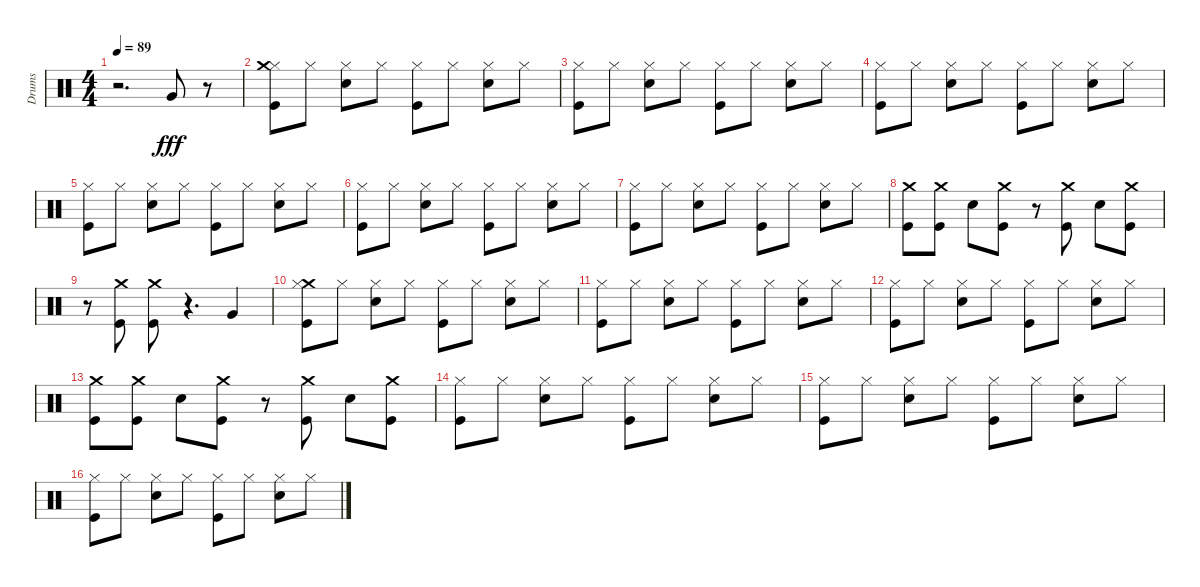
\track ("Drums" "Drums") {instrument percussion}
\staff {score}
\articulation defaults
\ts (4 4)
\tempo 89
\clef neutral
\ks c
r.2{d dy fff} "Very Low Tom (hit)".8 r.8 |
("Kick (hit)" "Hi-Hat (closed)" "Crash medium (hit)").8 "Hi-Hat (closed)".8 ("Snare (hit) 2" "Hi-Hat (closed)").8 "Hi-Hat (closed)".8 ("Kick (hit)" "Hi-Hat (closed)").8 "Hi-Hat (closed)".8 ("Snare (hit) 2" "Hi-Hat (closed)").8 "Hi-Hat (closed)".8 |
("Kick (hit)" "Hi-Hat (closed)").8 "Hi-Hat (closed)".8 ("Snare (hit) 2" "Hi-Hat (closed)").8 "Hi-Hat (closed)".8 ("Kick (hit)" "Hi-Hat (closed)").8 "Hi-Hat (closed)".8 ("Snare (hit) 2" "Hi-Hat (closed)").8 "Hi-Hat (closed)".8 |
("Kick (hit)" "Hi-Hat (closed)").8 "Hi-Hat (closed)".8 ("Snare (hit) 2" "Hi-Hat (closed)").8 "Hi-Hat (closed)".8 ("Kick (hit)" "Hi-Hat (closed)").8 "Hi-Hat (closed)".8 ("Snare (hit) 2" "Hi-Hat (closed)").8 "Hi-Hat (closed)".8 |
("Kick (hit)" "Hi-Hat (closed)").8 "Hi-Hat (closed)".8 ("Snare (hit) 2" "Hi-Hat (closed)").8 "Hi-Hat (closed)".8 ("Kick (hit)" "Hi-Hat (closed)").8 "Hi-Hat (closed)".8 ("Snare (hit) 2" "Hi-Hat (closed)").8 "Hi-Hat (closed)".8 |
("Kick (hit)" "Hi-Hat (closed)").8 "Hi-Hat (closed)".8 ("Snare (hit) 2" "Hi-Hat (closed)").8 "Hi-Hat (closed)".8 ("Kick (hit)" "Hi-Hat (closed)").8 "Hi-Hat (closed)".8 ("Snare (hit) 2" "Hi-Hat (closed)").8 "Hi-Hat (closed)".8 |
("Kick (hit)" "Hi-Hat (closed)").8 "Hi-Hat (closed)".8 ("Snare (hit) 2" "Hi-Hat (closed)").8 "Hi-Hat (closed)".8 ("Kick (hit)" "Hi-Hat (closed)").8 "Hi-Hat (closed)".8 ("Snare (hit) 2" "Hi-Hat (closed)").8 "Hi-Hat (closed)".8 |
("Crash medium (hit)" "Kick (hit)").8 ("Crash medium (hit)" "Kick (hit)").8 "Snare (hit) 2".8 ("Crash medium (hit)" "Kick (hit)").8 r.8 ("Crash medium (hit)" "Kick (hit)").8 "Snare (hit) 2".8 ("Crash medium (hit)" "Kick (hit)").8 |
r.8 ("Crash medium (hit)" "Kick (hit)").8 ("Crash medium (hit)" "Kick (hit)").8 r.4{d} "Very Low Tom (hit)".4 |
("Crash medium (hit)" "Hi-Hat (closed)" "Kick (hit)").8 "Hi-Hat (closed)".8 ("Snare (hit) 2" "Hi-Hat (closed)").8 "Hi-Hat (closed)".8 ("Kick (hit)" "Hi-Hat (closed)").8 "Hi-Hat (closed)".8 ("Snare (hit) 2" "Hi-Hat (closed)").8 "Hi-Hat (closed)".8 |
("Kick (hit)" "Hi-Hat (closed)").8 "Hi-Hat (closed)".8 ("Snare (hit) 2" "Hi-Hat (closed)").8 "Hi-Hat (closed)".8 ("Kick (hit)" "Hi-Hat (closed)").8 "Hi-Hat (closed)".8 ("Snare (hit) 2" "Hi-Hat (closed)").8 "Hi-Hat (closed)".8 |
("Kick (hit)" "Hi-Hat (closed)").8 "Hi-Hat (closed)".8 ("Snare (hit) 2" "Hi-Hat (closed)").8 "Hi-Hat (closed)".8 ("Kick (hit)" "Hi-Hat (closed)").8 "Hi-Hat (closed)".8 ("Snare (hit) 2" "Hi-Hat (closed)").8 "Hi-Hat (closed)".8 |
("Crash medium (hit)" "Kick (hit)").8 ("Crash medium (hit)" "Kick (hit)").8 "Snare (hit) 2".8 ("Crash medium (hit)" "Kick (hit)").8 r.8 ("Crash medium (hit)" "Kick (hit)").8 "Snare (hit) 2".8 ("Crash medium (hit)" "Kick (hit)").8 |
("Kick (hit)" "Hi-Hat (closed)").8 "Hi-Hat (closed)".8 ("Snare (hit) 2" "Hi-Hat (closed)").8 "Hi-Hat (closed)".8 ("Kick (hit)" "Hi-Hat (closed)").8 "Hi-Hat (closed)".8 ("Snare (hit) 2" "Hi-Hat (closed)").8 "Hi-Hat (closed)".8 |
("Kick (hit)" "Hi-Hat (closed)").8 "Hi-Hat (closed)".8 ("Snare (hit) 2" "Hi-Hat (closed)").8 "Hi-Hat (closed)".8 ("Kick (hit)" "Hi-Hat (closed)").8 "Hi-Hat (closed)".8 ("Snare (hit) 2" "Hi-Hat (closed)").8 "Hi-Hat (closed)".8 |
("Kick (hit)" "Hi-Hat (closed)").8 "Hi-Hat (closed)".8 ("Snare (hit) 2" "Hi-Hat (closed)").8 "Hi-Hat (closed)".8 ("Kick (hit)" "Hi-Hat (closed)").8 "Hi-Hat (closed)".8 ("Snare (hit) 2" "Hi-Hat (closed)").8 "Hi-Hat (closed)".8
